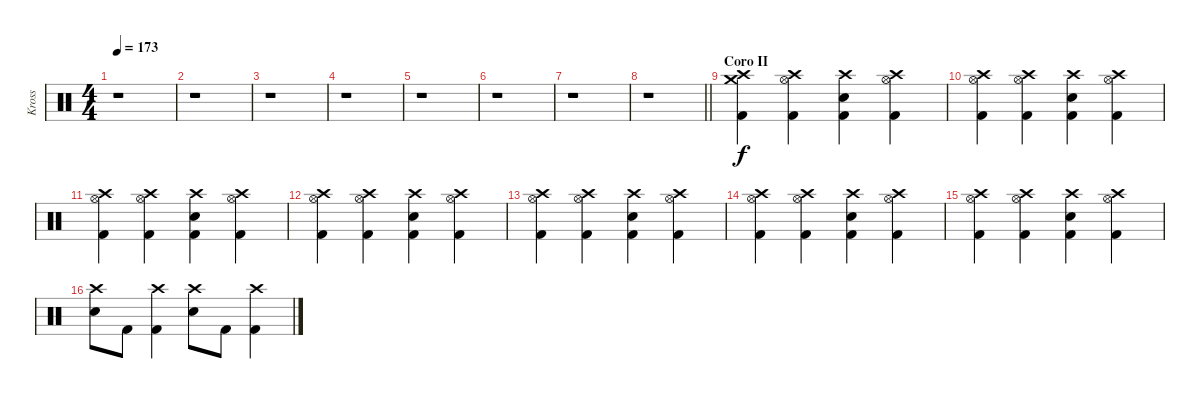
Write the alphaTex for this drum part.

\track ("Kross" "Kross") {instrument percussion}
\staff {score}
\articulation defaults
\ts (4 4)
\tempo 173
\clef neutral
\ks c
r.1{dy mp} |
r.1 |
r.1 |
r.1 |
r.1 |
r.1 |
r.1 |
\barLineRight lightlight
r.1 |
\section ("" "Coro II")
("Crash medium (hit)" "Crash high (hit)" "Kick (hit) 2").4{dy f} ("Crash high (hit)" "Hi-Hat (open)" "Kick (hit) 2").4 ("Crash high (hit)" "Electric Snare (hit)" "Kick (hit) 2").4 ("Crash high (hit)" "Hi-Hat (open)" "Kick (hit) 2").4 |
("Crash high (hit)" "Hi-Hat (open)" "Kick (hit) 2").4 ("Crash high (hit)" "Hi-Hat (open)" "Kick (hit) 2").4 ("Crash high (hit)" "Electric Snare (hit)" "Kick (hit) 2").4 ("Crash high (hit)" "Hi-Hat (open)" "Kick (hit) 2").4 |
("Crash high (hit)" "Hi-Hat (open)" "Kick (hit) 2").4 ("Crash high (hit)" "Hi-Hat (open)" "Kick (hit) 2").4 ("Crash high (hit)" "Electric Snare (hit)" "Kick (hit) 2").4 ("Crash high (hit)" "Hi-Hat (open)" "Kick (hit) 2").4 |
("Crash high (hit)" "Hi-Hat (open)" "Kick (hit) 2").4 ("Crash high (hit)" "Hi-Hat (open)" "Kick (hit) 2").4 ("Crash high (hit)" "Electric Snare (hit)" "Kick (hit) 2").4 ("Crash high (hit)" "Hi-Hat (open)" "Kick (hit) 2").4 |
("Crash high (hit)" "Hi-Hat (open)" "Kick (hit) 2").4 ("Crash high (hit)" "Hi-Hat (open)" "Kick (hit) 2").4 ("Crash high (hit)" "Electric Snare (hit)" "Kick (hit) 2").4 ("Crash high (hit)" "Hi-Hat (open)" "Kick (hit) 2").4 |
("Crash high (hit)" "Hi-Hat (open)" "Kick (hit) 2").4 ("Crash high (hit)" "Hi-Hat (open)" "Kick (hit) 2").4 ("Crash high (hit)" "Electric Snare (hit)" "Kick (hit) 2").4 ("Crash high (hit)" "Hi-Hat (open)" "Kick (hit) 2").4 |
("Crash high (hit)" "Hi-Hat (open)" "Kick (hit) 2").4 ("Crash high (hit)" "Hi-Hat (open)" "Kick (hit) 2").4 ("Crash high (hit)" "Electric Snare (hit)" "Kick (hit) 2").4 ("Crash high (hit)" "Hi-Hat (open)" "Kick (hit) 2").4 |
("Crash high (hit)" "Electric Snare (hit)").8 "Kick (hit) 2".8 ("Crash high (hit)" "Kick (hit) 2").4 ("Crash high (hit)" "Electric Snare (hit)").8 "Kick (hit) 2".8 ("Crash high (hit)" "Kick (hit) 2").4
